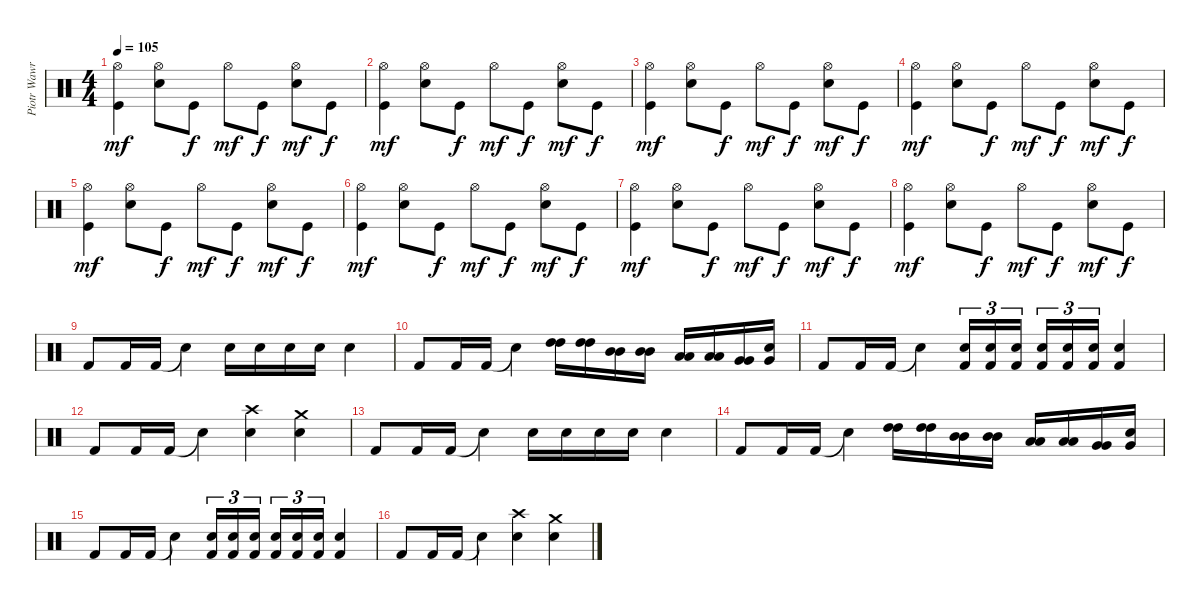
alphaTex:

\track ("Piotr Wawrzeniunk (drums)" "Piotr Wawr") {instrument percussion}
\staff {score}
\articulation defaults
\ts (4 4)
\tempo 105
\clef neutral
\ks c
("Kick (hit)" "Hi-Hat (open)").4{dy mf} ("Electric Snare (hit)" "Hi-Hat (open)").8 "Kick (hit)".8{dy f} "Hi-Hat (open)".8{dy mf} "Kick (hit)".8{dy f} ("Electric Snare (hit)" "Hi-Hat (open)").8{dy mf} "Kick (hit)".8{dy f} |
("Kick (hit)" "Hi-Hat (open)").4{dy mf} ("Electric Snare (hit)" "Hi-Hat (open)").8 "Kick (hit)".8{dy f} "Hi-Hat (open)".8{dy mf} "Kick (hit)".8{dy f} ("Electric Snare (hit)" "Hi-Hat (open)").8{dy mf} "Kick (hit)".8{dy f} |
("Kick (hit)" "Hi-Hat (open)").4{dy mf} ("Electric Snare (hit)" "Hi-Hat (open)").8 "Kick (hit)".8{dy f} "Hi-Hat (open)".8{dy mf} "Kick (hit)".8{dy f} ("Electric Snare (hit)" "Hi-Hat (open)").8{dy mf} "Kick (hit)".8{dy f} |
("Kick (hit)" "Hi-Hat (open)").4{dy mf} ("Electric Snare (hit)" "Hi-Hat (open)").8 "Kick (hit)".8{dy f} "Hi-Hat (open)".8{dy mf} "Kick (hit)".8{dy f} ("Electric Snare (hit)" "Hi-Hat (open)").8{dy mf} "Kick (hit)".8{dy f} |
("Kick (hit)" "Hi-Hat (open)").4{dy mf} ("Electric Snare (hit)" "Hi-Hat (open)").8 "Kick (hit)".8{dy f} "Hi-Hat (open)".8{dy mf} "Kick (hit)".8{dy f} ("Electric Snare (hit)" "Hi-Hat (open)").8{dy mf} "Kick (hit)".8{dy f} |
("Kick (hit)" "Hi-Hat (open)").4{dy mf} ("Electric Snare (hit)" "Hi-Hat (open)").8 "Kick (hit)".8{dy f} "Hi-Hat (open)".8{dy mf} "Kick (hit)".8{dy f} ("Electric Snare (hit)" "Hi-Hat (open)").8{dy mf} "Kick (hit)".8{dy f} |
("Kick (hit)" "Hi-Hat (open)").4{dy mf} ("Electric Snare (hit)" "Hi-Hat (open)").8 "Kick (hit)".8{dy f} "Hi-Hat (open)".8{dy mf} "Kick (hit)".8{dy f} ("Electric Snare (hit)" "Hi-Hat (open)").8{dy mf} "Kick (hit)".8{dy f} |
("Kick (hit)" "Hi-Hat (open)").4{dy mf} ("Electric Snare (hit)" "Hi-Hat (open)").8 "Kick (hit)".8{dy f} "Hi-Hat (open)".8{dy mf} "Kick (hit)".8{dy f} ("Electric Snare (hit)" "Hi-Hat (open)").8{dy mf} "Kick (hit)".8{dy f} |
"Kick (hit) 2".8 "Kick (hit) 2".16 "Kick (hit) 2".16 "Snare (hit)"{t}.4 "Electric Snare (hit)".16 "Electric Snare (hit)".16 "Electric Snare (hit)".16 "Electric Snare (hit)".16 "Electric Snare (hit)".4 |
"Kick (hit) 2".8 "Kick (hit) 2".16 "Kick (hit) 2".16 "Snare (hit)"{t}.4 ("High Tom (hit)" "High Tom (hit)").16 ("High Tom (hit)" "High Tom (hit)").16 ("Mid Tom (hit)" "Mid Tom (hit)").16 ("Mid Tom (hit)" "Mid Tom (hit)").16 ("Low Tom (hit)" "Low Tom (hit)").16 ("Low Tom (hit)" "Low Tom (hit)").16 ("Very Low Tom (hit)" "Very Low Tom (hit)").16 ("Snare (hit)" "Very Low Tom (hit)").16 |
"Kick (hit) 2".8 "Kick (hit) 2".16 "Kick (hit) 2".16 "Snare (hit)"{t}.4 ("Electric Snare (hit)" "Kick (hit) 2").16{tu (3 2)} ("Electric Snare (hit)" "Kick (hit) 2").16{tu (3 2)} ("Electric Snare (hit)" "Kick (hit) 2").16{tu (3 2)} ("Electric Snare (hit)" "Kick (hit) 2").16{tu (3 2)} ("Electric Snare (hit)" "Kick (hit) 2").16{tu (3 2)} ("Electric Snare (hit)" "Kick (hit) 2").16{tu (3 2)} ("Electric Snare (hit)" "Kick (hit) 2").4 |
"Kick (hit) 2".8 "Kick (hit) 2".16 "Kick (hit) 2".16 "Snare (hit)"{t}.4 ("Crash high (hit)" "Electric Snare (hit)").4 ("Crash medium (hit)" "Electric Snare (hit)").4 |
"Kick (hit) 2".8 "Kick (hit) 2".16 "Kick (hit) 2".16 "Snare (hit)"{t}.4 "Electric Snare (hit)".16 "Electric Snare (hit)".16 "Electric Snare (hit)".16 "Electric Snare (hit)".16 "Electric Snare (hit)".4 |
"Kick (hit) 2".8 "Kick (hit) 2".16 "Kick (hit) 2".16 "Snare (hit)"{t}.4 ("High Tom (hit)" "High Tom (hit)").16 ("High Tom (hit)" "High Tom (hit)").16 ("Mid Tom (hit)" "Mid Tom (hit)").16 ("Mid Tom (hit)" "Mid Tom (hit)").16 ("Low Tom (hit)" "Low Tom (hit)").16 ("Low Tom (hit)" "Low Tom (hit)").16 ("Very Low Tom (hit)" "Very Low Tom (hit)").16 ("Snare (hit)" "Very Low Tom (hit)").16 |
"Kick (hit) 2".8 "Kick (hit) 2".16 "Kick (hit) 2".16 "Snare (hit)"{t}.4 ("Electric Snare (hit)" "Kick (hit) 2").16{tu (3 2)} ("Electric Snare (hit)" "Kick (hit) 2").16{tu (3 2)} ("Electric Snare (hit)" "Kick (hit) 2").16{tu (3 2)} ("Electric Snare (hit)" "Kick (hit) 2").16{tu (3 2)} ("Electric Snare (hit)" "Kick (hit) 2").16{tu (3 2)} ("Electric Snare (hit)" "Kick (hit) 2").16{tu (3 2)} ("Electric Snare (hit)" "Kick (hit) 2").4 |
"Kick (hit) 2".8 "Kick (hit) 2".16 "Kick (hit) 2".16 "Snare (hit)"{t}.4 ("Crash high (hit)" "Electric Snare (hit)").4 ("Crash medium (hit)" "Electric Snare (hit)").4
